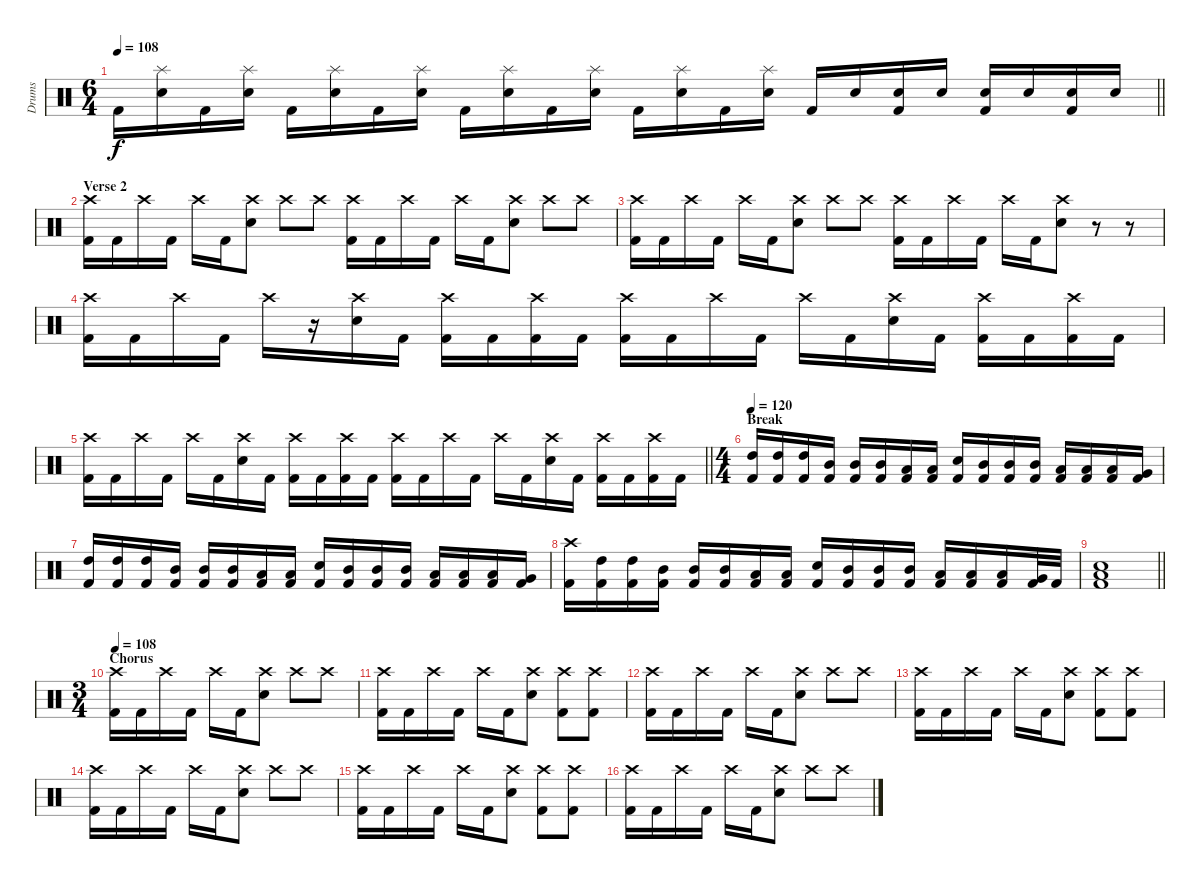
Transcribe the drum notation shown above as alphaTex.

\track ("Drums" "Drums") {instrument percussion}
\staff {score}
\articulation defaults
\ts (6 4)
\tempo 108
\clef neutral
\barLineRight lightlight
\ks c "Kick (hit) 2".16{dy f}
("Splash (hit)" "Electric Snare (hit)").16 "Kick (hit) 2".16 ("Splash (hit)" "Electric Snare (hit)").16 "Kick (hit) 2".16 ("Splash (hit)" "Electric Snare (hit)").16 "Kick (hit) 2".16 ("Splash (hit)" "Electric Snare (hit)").16 "Kick (hit) 2".16 ("Splash (hit)" "Electric Snare (hit)").16 "Kick (hit) 2".16 ("Splash (hit)" "Electric Snare (hit)").16 "Kick (hit) 2".16 ("Splash (hit)" "Electric Snare (hit)").16 "Kick (hit) 2".16 ("Splash (hit)" "Electric Snare (hit)").16 "Kick (hit) 2".16 "Electric Snare (hit)".16 ("Electric Snare (hit)" "Kick (hit) 2").16 "Electric Snare (hit)".16 ("Electric Snare (hit)" "Kick (hit) 2").16 "Electric Snare (hit)".16 ("Electric Snare (hit)" "Kick (hit) 2").16 "Electric Snare (hit)".16 |
\section ("" "Verse 2")
("Crash high (hit)" "Kick (hit) 2").16 "Kick (hit) 2".16 "Crash high (hit)".16 "Kick (hit) 2".16 "Crash high (hit)".16 "Kick (hit) 2".16 ("Crash high (hit)" "Electric Snare (hit)").8 "Crash high (hit)".8 "Crash high (hit)".8 ("Crash high (hit)" "Kick (hit) 2").16 "Kick (hit) 2".16 "Crash high (hit)".16 "Kick (hit) 2".16 "Crash high (hit)".16 "Kick (hit) 2".16 ("Crash high (hit)" "Electric Snare (hit)").8 "Crash high (hit)".8 "Crash high (hit)".8 |
("Crash high (hit)" "Kick (hit) 2").16 "Kick (hit) 2".16 "Crash high (hit)".16 "Kick (hit) 2".16 "Crash high (hit)".16 "Kick (hit) 2".16 ("Crash high (hit)" "Electric Snare (hit)").8 "Crash high (hit)".8 "Crash high (hit)".8 ("Crash high (hit)" "Kick (hit) 2").16 "Kick (hit) 2".16 "Crash high (hit)".16 "Kick (hit) 2".16 "Crash high (hit)".16 "Kick (hit) 2".16 ("Crash high (hit)" "Electric Snare (hit)").8 r.8 r.8 |
("Crash high (hit)" "Kick (hit) 2").16 "Kick (hit) 2".16 "Crash high (hit)".16 "Kick (hit) 2".16 "Crash high (hit)".16 r.16 ("Crash high (hit)" "Electric Snare (hit)").16 "Kick (hit) 2".16 ("Crash high (hit)" "Kick (hit) 2").16 "Kick (hit) 2".16 ("Crash high (hit)" "Kick (hit) 2").16 "Kick (hit) 2".16 ("Crash high (hit)" "Kick (hit) 2").16 "Kick (hit) 2".16 "Crash high (hit)".16 "Kick (hit) 2".16 "Crash high (hit)".16 "Kick (hit) 2".16 ("Crash high (hit)" "Electric Snare (hit)").16 "Kick (hit) 2".16 ("Crash high (hit)" "Kick (hit) 2").16 "Kick (hit) 2".16 ("Crash high (hit)" "Kick (hit) 2").16 "Kick (hit) 2".16 |
\barLineRight lightlight
("Crash high (hit)" "Kick (hit) 2").16 "Kick (hit) 2".16 "Crash high (hit)".16 "Kick (hit) 2".16 "Crash high (hit)".16 "Kick (hit) 2".16 ("Crash high (hit)" "Electric Snare (hit)").16 "Kick (hit) 2".16 ("Crash high (hit)" "Kick (hit) 2").16 "Kick (hit) 2".16 ("Crash high (hit)" "Kick (hit) 2").16 "Kick (hit) 2".16 ("Crash high (hit)" "Kick (hit) 2").16 "Kick (hit) 2".16 "Crash high (hit)".16 "Kick (hit) 2".16 "Crash high (hit)".16 "Kick (hit) 2".16 ("Crash high (hit)" "Electric Snare (hit)").16 "Kick (hit) 2".16 ("Crash high (hit)" "Kick (hit) 2").16 "Kick (hit) 2".16 ("Crash high (hit)" "Kick (hit) 2").16 "Kick (hit) 2".16 |
\ts (4 4)
\section ("" "Break")
\tempo 120
("High Tom (hit)" "Kick (hit) 2").16 ("High Tom (hit)" "Kick (hit) 2").16 ("High Tom (hit)" "Kick (hit) 2").16 ("Mid Tom (hit)" "Kick (hit) 2").16 ("Mid Tom (hit)" "Kick (hit) 2").16 ("Mid Tom (hit)" "Kick (hit) 2").16 ("Low Tom (hit)" "Kick (hit) 2").16 ("Low Tom (hit)" "Kick (hit) 2").16 ("Electric Snare (hit)" "Kick (hit) 2").16 ("Mid Tom (hit)" "Kick (hit) 2").16 ("Mid Tom (hit)" "Kick (hit) 2").16 ("Mid Tom (hit)" "Kick (hit) 2").16 ("Low Tom (hit)" "Kick (hit) 2").16 ("Low Tom (hit)" "Kick (hit) 2").16 ("Low Tom (hit)" "Kick (hit) 2").16 ("Very Low Tom (hit)" "Kick (hit) 2").16 |
("High Tom (hit)" "Kick (hit) 2").16 ("High Tom (hit)" "Kick (hit) 2").16 ("High Tom (hit)" "Kick (hit) 2").16 ("Mid Tom (hit)" "Kick (hit) 2").16 ("Mid Tom (hit)" "Kick (hit) 2").16 ("Mid Tom (hit)" "Kick (hit) 2").16 ("Low Tom (hit)" "Kick (hit) 2").16 ("Low Tom (hit)" "Kick (hit) 2").16 ("Electric Snare (hit)" "Kick (hit) 2").16 ("Mid Tom (hit)" "Kick (hit) 2").16 ("Mid Tom (hit)" "Kick (hit) 2").16 ("Mid Tom (hit)" "Kick (hit) 2").16 ("Low Tom (hit)" "Kick (hit) 2").16 ("Low Tom (hit)" "Kick (hit) 2").16 ("Low Tom (hit)" "Kick (hit) 2").16 ("Very Low Tom (hit)" "Kick (hit) 2").16 |
("Crash high (hit)" "Kick (hit) 2").16 ("High Tom (hit)" "Kick (hit) 2").16 ("High Tom (hit)" "Kick (hit) 2").16 ("Mid Tom (hit)" "Kick (hit) 2").16 ("Mid Tom (hit)" "Kick (hit) 2").16 ("Mid Tom (hit)" "Kick (hit) 2").16 ("Low Tom (hit)" "Kick (hit) 2").16 ("Low Tom (hit)" "Kick (hit) 2").16 ("Electric Snare (hit)" "Kick (hit) 2").16 ("Mid Tom (hit)" "Kick (hit) 2").16 ("Mid Tom (hit)" "Kick (hit) 2").16 ("Mid Tom (hit)" "Kick (hit) 2").16 ("Low Tom (hit)" "Kick (hit) 2").16 ("Low Tom (hit)" "Kick (hit) 2").16 ("Low Tom (hit)" "Kick (hit) 2").16 ("Very Low Tom (hit)" "Kick (hit) 2").32 "Kick (hit) 2".32 |
\barLineRight lightlight
("Low Floor Tom (hit)" "Electric Snare (hit)" "Kick (hit) 2").1 |
\ts (3 4)
\section ("" "Chorus")
\tempo 108
("Crash high (hit)" "Kick (hit) 2").16 "Kick (hit) 2".16 "Crash high (hit)".16 "Kick (hit) 2".16 "Crash high (hit)".16 "Kick (hit) 2".16 ("Crash high (hit)" "Electric Snare (hit)").8 "Crash high (hit)".8 "Crash high (hit)".8 |
("Crash high (hit)" "Kick (hit) 2").16 "Kick (hit) 2".16 "Crash high (hit)".16 "Kick (hit) 2".16 "Crash high (hit)".16 "Kick (hit) 2".16 ("Crash high (hit)" "Electric Snare (hit)").8 ("Crash high (hit)" "Kick (hit) 2").8 ("Crash high (hit)" "Kick (hit) 2").8 |
("Crash high (hit)" "Kick (hit) 2").16 "Kick (hit) 2".16 "Crash high (hit)".16 "Kick (hit) 2".16 "Crash high (hit)".16 "Kick (hit) 2".16 ("Crash high (hit)" "Electric Snare (hit)").8 "Crash high (hit)".8 "Crash high (hit)".8 |
("Crash high (hit)" "Kick (hit) 2").16 "Kick (hit) 2".16 "Crash high (hit)".16 "Kick (hit) 2".16 "Crash high (hit)".16 "Kick (hit) 2".16 ("Crash high (hit)" "Electric Snare (hit)").8 ("Crash high (hit)" "Kick (hit) 2").8 ("Crash high (hit)" "Kick (hit) 2").8 |
("Crash high (hit)" "Kick (hit) 2").16 "Kick (hit) 2".16 "Crash high (hit)".16 "Kick (hit) 2".16 "Crash high (hit)".16 "Kick (hit) 2".16 ("Crash high (hit)" "Electric Snare (hit)").8 "Crash high (hit)".8 "Crash high (hit)".8 |
("Crash high (hit)" "Kick (hit) 2").16 "Kick (hit) 2".16 "Crash high (hit)".16 "Kick (hit) 2".16 "Crash high (hit)".16 "Kick (hit) 2".16 ("Crash high (hit)" "Electric Snare (hit)").8 ("Crash high (hit)" "Kick (hit) 2").8 ("Crash high (hit)" "Kick (hit) 2").8 |
("Crash high (hit)" "Kick (hit) 2").16 "Kick (hit) 2".16 "Crash high (hit)".16 "Kick (hit) 2".16 "Crash high (hit)".16 "Kick (hit) 2".16 ("Crash high (hit)" "Electric Snare (hit)").8 "Crash high (hit)".8 "Crash high (hit)".8
